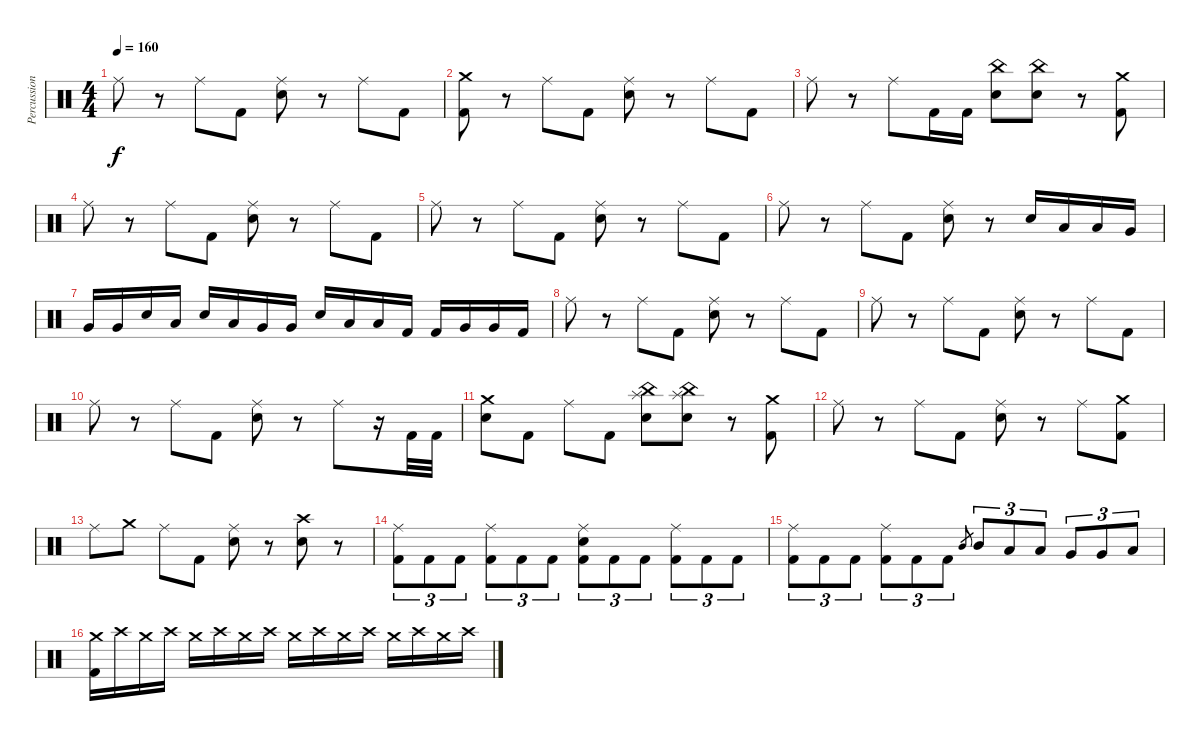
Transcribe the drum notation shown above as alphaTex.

\track ("Percussion" "Percussion") {instrument percussion}
\staff {score}
\articulation defaults
\ts (4 4)
\tempo 160
\clef neutral
\ks c "Ride (middle)".8{dy f}
r.8 "Ride (middle)".8 "Kick (hit) 2".8 ("Ride (middle)" "Electric Snare (hit)").8 r.8 "Ride (middle)".8 "Kick (hit) 2".8 |
("Crash medium (hit)" "Kick (hit) 2").8 r.8 "Ride (middle)".8 "Kick (hit) 2".8 ("Ride (middle)" "Electric Snare (hit)").8 r.8 "Ride (middle)".8 "Kick (hit) 2".8 |
"Ride (middle)".8 r.8 "Ride (middle)".8 "Kick (hit) 2".16 "Kick (hit) 2".16 ("China (hit)" "Electric Snare (hit)").8 ("China (hit)" "Electric Snare (hit)").8 r.8 ("Crash medium (hit)" "Kick (hit) 2").8 |
"Ride (middle)".8 r.8 "Ride (middle)".8 "Kick (hit) 2".8 ("Ride (middle)" "Electric Snare (hit)").8 r.8 "Ride (middle)".8 "Kick (hit) 2".8 |
"Ride (middle)".8 r.8 "Ride (middle)".8 "Kick (hit) 2".8 ("Ride (middle)" "Electric Snare (hit)").8 r.8 "Ride (middle)".8 "Kick (hit) 2".8 |
"Ride (middle)".8 r.8 "Ride (middle)".8 "Kick (hit) 2".8 ("Ride (middle)" "Electric Snare (hit)").8 r.8 "Electric Snare (hit)".16 "Low Tom (hit)".16 "Low Tom (hit)".16 "Very Low Tom (hit)".16 |
"Very Low Tom (hit)".16 "Very Low Tom (hit)".16 "Electric Snare (hit)".16 "Low Tom (hit)".16 "Electric Snare (hit)".16 "Low Tom (hit)".16 "Very Low Tom (hit)".16 "Very Low Tom (hit)".16 "Electric Snare (hit)".16 "Low Tom (hit)".16 "Low Tom (hit)".16 "Kick (hit) 2".16 "Kick (hit) 2".16 "Very Low Tom (hit)".16 "Very Low Tom (hit)".16 "Kick (hit) 2".16 |
"Ride (middle)".8 r.8 "Ride (middle)".8 "Kick (hit) 2".8 ("Ride (middle)" "Electric Snare (hit)").8 r.8 "Ride (middle)".8 "Kick (hit) 2".8 |
"Ride (middle)".8 r.8 "Ride (middle)".8 "Kick (hit) 2".8 ("Ride (middle)" "Electric Snare (hit)").8 r.8 "Ride (middle)".8 "Kick (hit) 2".8 |
"Ride (middle)".8 r.8 "Ride (middle)".8 "Kick (hit) 2".8 ("Ride (middle)" "Electric Snare (hit)").8 r.8 "Ride (middle)".8 r.16 "Kick (hit) 2".32 "Kick (hit) 2".32 |
("Crash medium (hit)" "Electric Snare (hit)").8 "Kick (hit) 2".8 "Ride (middle)".8 "Kick (hit) 2".8 ("China (hit)" "Electric Snare (hit)" "Splash (hit)").8 ("China (hit)" "Electric Snare (hit)" "Splash (hit)").8 r.8 ("Crash medium (hit)" "Kick (hit) 2").8 |
"Ride (middle)".8 r.8 "Ride (middle)".8 "Kick (hit) 2".8 ("Ride (middle)" "Electric Snare (hit)").8 r.8 "Ride (middle)".8 ("Crash medium (hit)" "Kick (hit) 2").8 |
"Ride (middle)".8 "Crash medium (hit)".8 "Ride (middle)".8 "Kick (hit) 2".8 ("Ride (middle)" "Electric Snare (hit)").8 r.8 ("Crash high (hit)" "Electric Snare (hit)").8 r.8 |
("Ride (middle)" "Kick (hit) 2").8{tu (3 2)} "Kick (hit) 2".8{tu (3 2)} "Kick (hit) 2".8{tu (3 2)} ("Ride (middle)" "Kick (hit) 2").8{tu (3 2)} "Kick (hit) 2".8{tu (3 2)} "Kick (hit) 2".8{tu (3 2)} ("Ride (middle)" "Kick (hit) 2" "Electric Snare (hit)").8{tu (3 2)} "Kick (hit) 2".8{tu (3 2)} "Kick (hit) 2".8{tu (3 2)} ("Ride (middle)" "Kick (hit) 2").8{tu (3 2)} "Kick (hit) 2".8{tu (3 2)} "Kick (hit) 2".8{tu (3 2)} |
("Ride (middle)" "Kick (hit) 2").8{tu (3 2)} "Kick (hit) 2".8{tu (3 2)} "Kick (hit) 2".8{tu (3 2)} ("Ride (middle)" "Kick (hit) 2").8{tu (3 2)} "Kick (hit) 2".8{tu (3 2)} "Kick (hit) 2".8{tu (3 2)} "Mid Tom (hit)".8{gr} "Mid Tom (hit)".8{tu (3 2)} "Low Tom (hit)".8{tu (3 2)} "Low Tom (hit)".8{tu (3 2)} "Very Low Tom (hit)".8{tu (3 2)} "Very Low Tom (hit)".8{tu (3 2)} "Low Floor Tom (hit)".8{tu (3 2)} |
("Crash medium (hit)" "Kick (hit) 2").16 "Crash high (hit)".16 "Crash medium (hit)".16 "Crash high (hit)".16 "Crash medium (hit)".16 "Crash high (hit)".16 "Crash medium (hit)".16 "Crash high (hit)".16 "Crash medium (hit)".16 "Crash high (hit)".16 "Crash medium (hit)".16 "Crash high (hit)".16 "Crash medium (hit)".16 "Crash high (hit)".16 "Crash medium (hit)".16 "Crash high (hit)".16
